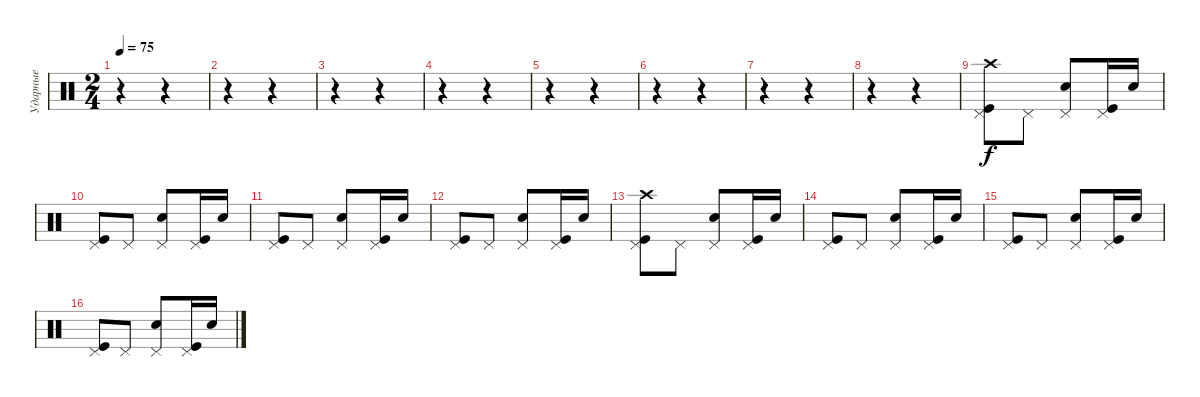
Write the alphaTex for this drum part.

\track ("Ударные" "Ударные") {instrument percussion}
\staff {score}
\articulation defaults
\ts (2 4)
\tempo 75
\clef neutral
\ks c
r.4{dy f} r.4 |
r.4 r.4 |
r.4 r.4 |
r.4 r.4 |
r.4 r.4 |
r.4 r.4 |
r.4 r.4 |
r.4 r.4 |
("Pedal Hi-Hat (hit)" "Kick (hit)" "Crash high (hit)").8 "Pedal Hi-Hat (hit)".8 ("Pedal Hi-Hat (hit)" "Snare (hit) 2").8 ("Pedal Hi-Hat (hit)" "Kick (hit)").16 "Snare (hit) 2".16 |
("Pedal Hi-Hat (hit)" "Kick (hit)").8 "Pedal Hi-Hat (hit)".8 ("Pedal Hi-Hat (hit)" "Snare (hit) 2").8 ("Pedal Hi-Hat (hit)" "Kick (hit)").16 "Snare (hit) 2".16 |
("Pedal Hi-Hat (hit)" "Kick (hit)").8 "Pedal Hi-Hat (hit)".8 ("Pedal Hi-Hat (hit)" "Snare (hit) 2").8 ("Pedal Hi-Hat (hit)" "Kick (hit)").16 "Snare (hit) 2".16 |
("Pedal Hi-Hat (hit)" "Kick (hit)").8 "Pedal Hi-Hat (hit)".8 ("Pedal Hi-Hat (hit)" "Snare (hit) 2").8 ("Pedal Hi-Hat (hit)" "Kick (hit)").16 "Snare (hit) 2".16 |
("Pedal Hi-Hat (hit)" "Kick (hit)" "Crash high (hit)").8 "Pedal Hi-Hat (hit)".8 ("Pedal Hi-Hat (hit)" "Snare (hit) 2").8 ("Pedal Hi-Hat (hit)" "Kick (hit)").16 "Snare (hit) 2".16 |
("Pedal Hi-Hat (hit)" "Kick (hit)").8 "Pedal Hi-Hat (hit)".8 ("Pedal Hi-Hat (hit)" "Snare (hit) 2").8 ("Pedal Hi-Hat (hit)" "Kick (hit)").16 "Snare (hit) 2".16 |
("Pedal Hi-Hat (hit)" "Kick (hit)").8 "Pedal Hi-Hat (hit)".8 ("Pedal Hi-Hat (hit)" "Snare (hit) 2").8 ("Pedal Hi-Hat (hit)" "Kick (hit)").16 "Snare (hit) 2".16 |
("Pedal Hi-Hat (hit)" "Kick (hit)").8 "Pedal Hi-Hat (hit)".8 ("Pedal Hi-Hat (hit)" "Snare (hit) 2").8 ("Pedal Hi-Hat (hit)" "Kick (hit)").16 "Snare (hit) 2".16
